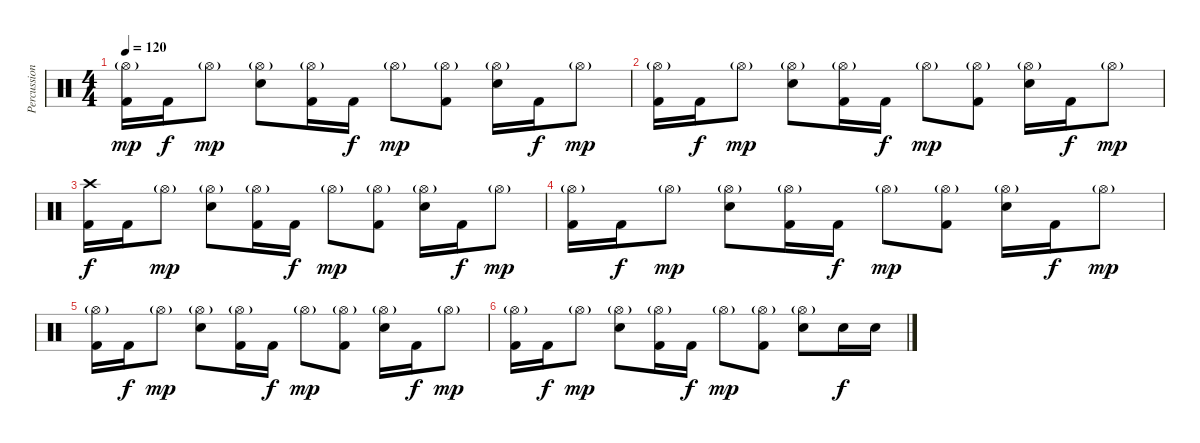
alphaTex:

\track ("Percussion" "Percussion") {instrument percussion}
\staff {score}
\articulation defaults
\ts (4 4)
\tempo 120
\clef neutral
\ks c
("Hi-Hat (open)"{g} "Kick (hit) 2").16{dy mp} "Kick (hit) 2".16{dy f} "Hi-Hat (open)"{g}.8{dy mp} ("Hi-Hat (open)"{g} "Snare (hit) 2").8 ("Hi-Hat (open)"{g} "Kick (hit) 2").16 "Kick (hit) 2".16{dy f} "Hi-Hat (open)"{g}.8{dy mp} ("Hi-Hat (open)"{g} "Kick (hit) 2").8 ("Hi-Hat (open)"{g} "Snare (hit) 2").16 "Kick (hit) 2".16{dy f} "Hi-Hat (open)"{g}.8{dy mp} |
("Hi-Hat (open)"{g} "Kick (hit) 2").16 "Kick (hit) 2".16{dy f} "Hi-Hat (open)"{g}.8{dy mp} ("Hi-Hat (open)"{g} "Snare (hit) 2").8 ("Hi-Hat (open)"{g} "Kick (hit) 2").16 "Kick (hit) 2".16{dy f} "Hi-Hat (open)"{g}.8{dy mp} ("Hi-Hat (open)"{g} "Kick (hit) 2").8 ("Hi-Hat (open)"{g} "Snare (hit) 2").16 "Kick (hit) 2".16{dy f} "Hi-Hat (open)"{g}.8{dy mp} |
("Crash high (hit)" "Kick (hit) 2").16{dy f} "Kick (hit) 2".16 "Hi-Hat (open)"{g}.8{dy mp} ("Hi-Hat (open)"{g} "Snare (hit) 2").8 ("Hi-Hat (open)"{g} "Kick (hit) 2").16 "Kick (hit) 2".16{dy f} "Hi-Hat (open)"{g}.8{dy mp} ("Hi-Hat (open)"{g} "Kick (hit) 2").8 ("Hi-Hat (open)"{g} "Snare (hit) 2").16 "Kick (hit) 2".16{dy f} "Hi-Hat (open)"{g}.8{dy mp} |
("Hi-Hat (open)"{g} "Kick (hit) 2").16 "Kick (hit) 2".16{dy f} "Hi-Hat (open)"{g}.8{dy mp} ("Hi-Hat (open)"{g} "Snare (hit) 2").8 ("Hi-Hat (open)"{g} "Kick (hit) 2").16 "Kick (hit) 2".16{dy f} "Hi-Hat (open)"{g}.8{dy mp} ("Hi-Hat (open)"{g} "Kick (hit) 2").8 ("Hi-Hat (open)"{g} "Snare (hit) 2").16 "Kick (hit) 2".16{dy f} "Hi-Hat (open)"{g}.8{dy mp} |
("Hi-Hat (open)"{g} "Kick (hit) 2").16 "Kick (hit) 2".16{dy f} "Hi-Hat (open)"{g}.8{dy mp} ("Hi-Hat (open)"{g} "Snare (hit) 2").8 ("Hi-Hat (open)"{g} "Kick (hit) 2").16 "Kick (hit) 2".16{dy f} "Hi-Hat (open)"{g}.8{dy mp} ("Hi-Hat (open)"{g} "Kick (hit) 2").8 ("Hi-Hat (open)"{g} "Snare (hit) 2").16 "Kick (hit) 2".16{dy f} "Hi-Hat (open)"{g}.8{dy mp} |
("Hi-Hat (open)"{g} "Kick (hit) 2").16 "Kick (hit) 2".16{dy f} "Hi-Hat (open)"{g}.8{dy mp} ("Hi-Hat (open)"{g} "Snare (hit) 2").8 ("Hi-Hat (open)"{g} "Kick (hit) 2").16 "Kick (hit) 2".16{dy f} "Hi-Hat (open)"{g}.8{dy mp} ("Hi-Hat (open)"{g} "Kick (hit) 2").8 ("Hi-Hat (open)"{g} "Snare (hit) 2").8 "Snare (hit) 2".16{dy f} "Snare (hit) 2".16
